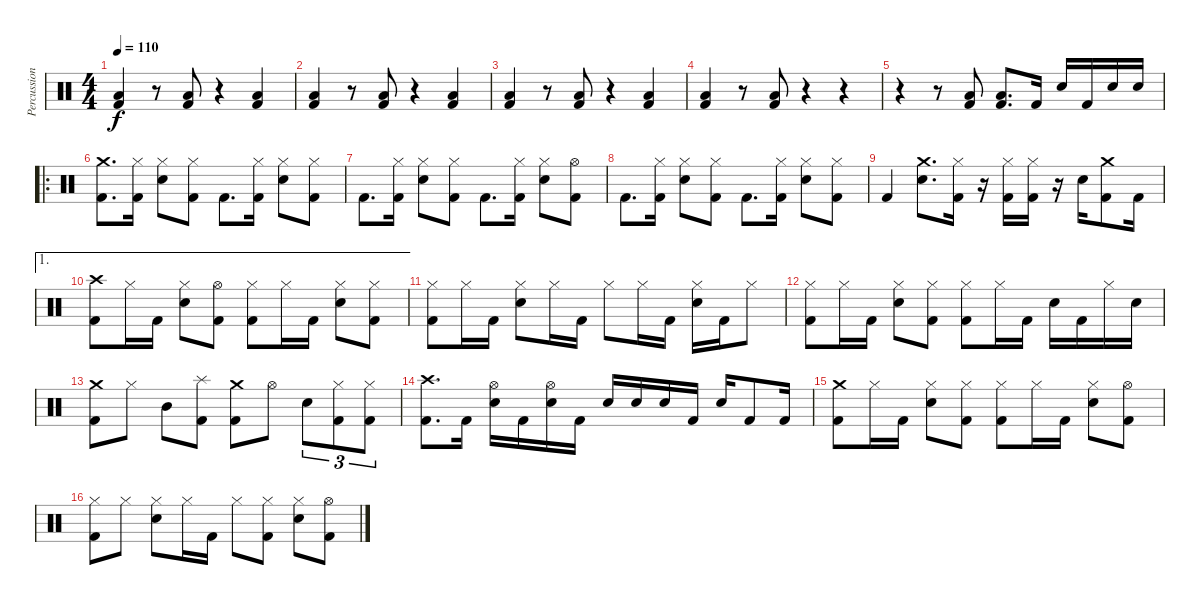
\track ("Percussions" "Percussion") {instrument percussion}
\staff {score}
\articulation defaults
\ts (4 4)
\tempo 110
\clef neutral
\ks c
("Low Tom (hit)" "Kick (hit) 2").4{dy f} r.8 ("Low Tom (hit)" "Kick (hit) 2").8 r.4 ("Low Tom (hit)" "Kick (hit) 2").4 |
("Low Tom (hit)" "Kick (hit) 2").4 r.8 ("Low Tom (hit)" "Kick (hit) 2").8 r.4 ("Low Tom (hit)" "Kick (hit) 2").4 |
("Low Tom (hit)" "Kick (hit) 2").4 r.8 ("Low Tom (hit)" "Kick (hit) 2").8 r.4 ("Low Tom (hit)" "Kick (hit) 2").4 |
("Low Tom (hit)" "Kick (hit) 2").4 r.8 ("Low Tom (hit)" "Kick (hit) 2").8 r.4 r.4 |
r.4 r.8 ("Low Tom (hit)" "Kick (hit) 2").8 ("Low Tom (hit)" "Kick (hit) 2").8{d} "Kick (hit) 2".16 "Electric Snare (hit)".16 "Kick (hit) 2".16 "Electric Snare (hit)".16 "Electric Snare (hit)".16 |
\ro
("Crash medium (hit)" "Kick (hit) 2").8{d} ("Hi-Hat (closed)" "Kick (hit) 2").16 ("Hi-Hat (closed)" "Electric Snare (hit)").8 ("Hi-Hat (closed)" "Kick (hit) 2").8 "Kick (hit) 2".8{d} ("Hi-Hat (closed)" "Kick (hit) 2").16 ("Hi-Hat (closed)" "Electric Snare (hit)").8 ("Hi-Hat (closed)" "Kick (hit) 2").8 |
"Kick (hit) 2".8{d} ("Hi-Hat (closed)" "Kick (hit) 2").16 ("Hi-Hat (closed)" "Electric Snare (hit)").8 ("Hi-Hat (closed)" "Kick (hit) 2").8 "Kick (hit) 2".8{d} ("Hi-Hat (closed)" "Kick (hit) 2").16 ("Hi-Hat (closed)" "Electric Snare (hit)").8 ("Hi-Hat (open)" "Kick (hit) 2").8 |
"Kick (hit) 2".8{d} ("Hi-Hat (closed)" "Kick (hit) 2").16 ("Hi-Hat (closed)" "Electric Snare (hit)").8 ("Hi-Hat (closed)" "Kick (hit) 2").8 "Kick (hit) 2".8{d} ("Hi-Hat (closed)" "Kick (hit) 2").16 ("Hi-Hat (closed)" "Electric Snare (hit)").8 ("Hi-Hat (closed)" "Kick (hit) 2").8 |
"Kick (hit) 2".4 ("Crash medium (hit)" "Electric Snare (hit)").8{d} ("Hi-Hat (closed)" "Kick (hit) 2").16 r.16 ("Hi-Hat (closed)" "Kick (hit) 2").16 ("Hi-Hat (closed)" "Kick (hit) 2").16 r.16 "Electric Snare (hit)".16 ("Crash medium (hit)" "Kick (hit) 2").8 "Kick (hit) 2".16 |
\ae 1
("Crash high (hit)" "Kick (hit) 2").8 "Hi-Hat (closed)".16 "Kick (hit) 2".16 ("Hi-Hat (closed)" "Electric Snare (hit)").8 ("Hi-Hat (open)" "Kick (hit) 2").8 ("Hi-Hat (closed)" "Kick (hit) 2").8 "Hi-Hat (closed)".16 "Kick (hit) 2".16 ("Hi-Hat (closed)" "Electric Snare (hit)").8 ("Hi-Hat (closed)" "Kick (hit) 2").8 |
("Hi-Hat (closed)" "Kick (hit) 2").8 "Hi-Hat (closed)".16 "Kick (hit) 2".16 ("Hi-Hat (closed)" "Electric Snare (hit)").8 "Hi-Hat (closed)".16 "Kick (hit) 2".16 "Hi-Hat (closed)".8 "Hi-Hat (closed)".16 "Kick (hit) 2".16 ("Hi-Hat (closed)" "Electric Snare (hit)").16 "Kick (hit) 2".16 "Hi-Hat (closed)".8 |
("Hi-Hat (closed)" "Kick (hit) 2").8 "Hi-Hat (closed)".16 "Kick (hit) 2".16 ("Hi-Hat (closed)" "Electric Snare (hit)").8 ("Hi-Hat (closed)" "Kick (hit) 2").8 ("Hi-Hat (closed)" "Kick (hit) 2").8 "Hi-Hat (closed)".16 "Kick (hit) 2".16 "Electric Snare (hit)".16 "Kick (hit) 2".16 "Hi-Hat (closed)".16 "Electric Snare (hit)".16 |
("Crash medium (hit)" "Kick (hit) 2").8 "Hi-Hat (closed)".8 "Mid Tom (hit)".8 ("Splash (hit)" "Kick (hit) 2").8 ("Crash medium (hit)" "Kick (hit) 2").8 "Hi-Hat (open)".8 "Electric Snare (hit)".8{tu (3 2)} ("Hi-Hat (closed)" "Kick (hit) 2").8{tu (3 2)} ("Hi-Hat (closed)" "Kick (hit) 2").8{tu (3 2)} |
("Crash high (hit)" "Kick (hit) 2").8{d} "Kick (hit) 2".16 ("Hi-Hat (open)" "Electric Snare (hit)").16 "Kick (hit) 2".16 ("Hi-Hat (open)" "Electric Snare (hit)").16 "Kick (hit) 2".16 "Electric Snare (hit)".16 "Electric Snare (hit)".16 "Electric Snare (hit)".16 "Kick (hit) 2".16 "Electric Snare (hit)".16 "Kick (hit) 2".8 "Kick (hit) 2".16 |
("Crash medium (hit)" "Kick (hit) 2").8 "Hi-Hat (closed)".16 "Kick (hit) 2".16 ("Hi-Hat (closed)" "Electric Snare (hit)").8 ("Hi-Hat (closed)" "Kick (hit) 2").8 ("Hi-Hat (closed)" "Kick (hit) 2").8 "Hi-Hat (closed)".16 "Kick (hit) 2".16 ("Hi-Hat (closed)" "Electric Snare (hit)").8 ("Hi-Hat (open)" "Kick (hit) 2").8 |
("Hi-Hat (closed)" "Kick (hit) 2").8 "Hi-Hat (closed)".8 ("Hi-Hat (closed)" "Electric Snare (hit)").8 "Hi-Hat (closed)".16 "Kick (hit) 2".16 "Hi-Hat (closed)".8 ("Hi-Hat (closed)" "Kick (hit) 2").8 ("Hi-Hat (closed)" "Electric Snare (hit)").8 ("Hi-Hat (open)" "Kick (hit) 2").8
